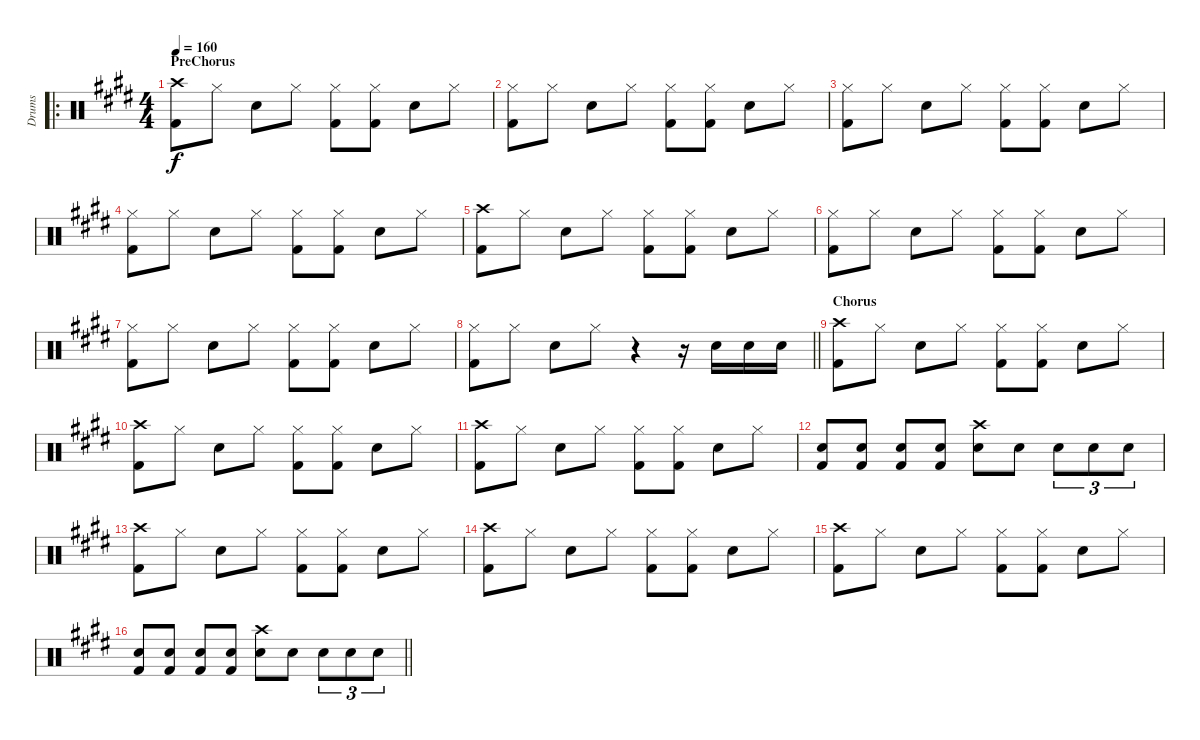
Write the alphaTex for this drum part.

\track ("Drums" "Drums") {instrument percussion}
\staff {score}
\articulation defaults
\ro
\ts (4 4)
\section ("" "PreChorus")
\tempo 160
\clef neutral
\ks e
("Kick (hit) 2" "Crash high (hit)").8{dy f} "Hi-Hat (closed)".8 "Snare (hit) 2".8 "Hi-Hat (closed)".8 ("Kick (hit) 2" "Hi-Hat (closed)").8 ("Kick (hit) 2" "Hi-Hat (closed)").8 "Snare (hit) 2".8 "Hi-Hat (closed)".8 |
("Kick (hit) 2" "Hi-Hat (closed)").8 "Hi-Hat (closed)".8 "Snare (hit) 2".8 "Hi-Hat (closed)".8 ("Kick (hit) 2" "Hi-Hat (closed)").8 ("Kick (hit) 2" "Hi-Hat (closed)").8 "Snare (hit) 2".8 "Hi-Hat (closed)".8 |
("Kick (hit) 2" "Hi-Hat (closed)").8 "Hi-Hat (closed)".8 "Snare (hit) 2".8 "Hi-Hat (closed)".8 ("Kick (hit) 2" "Hi-Hat (closed)").8 ("Kick (hit) 2" "Hi-Hat (closed)").8 "Snare (hit) 2".8 "Hi-Hat (closed)".8 |
("Kick (hit) 2" "Hi-Hat (closed)").8 "Hi-Hat (closed)".8 "Snare (hit) 2".8 "Hi-Hat (closed)".8 ("Kick (hit) 2" "Hi-Hat (closed)").8 ("Kick (hit) 2" "Hi-Hat (closed)").8 "Snare (hit) 2".8 "Hi-Hat (closed)".8 |
("Kick (hit) 2" "Crash high (hit)").8 "Hi-Hat (closed)".8 "Snare (hit) 2".8 "Hi-Hat (closed)".8 ("Kick (hit) 2" "Hi-Hat (closed)").8 ("Kick (hit) 2" "Hi-Hat (closed)").8 "Snare (hit) 2".8 "Hi-Hat (closed)".8 |
("Kick (hit) 2" "Hi-Hat (closed)").8 "Hi-Hat (closed)".8 "Snare (hit) 2".8 "Hi-Hat (closed)".8 ("Kick (hit) 2" "Hi-Hat (closed)").8 ("Kick (hit) 2" "Hi-Hat (closed)").8 "Snare (hit) 2".8 "Hi-Hat (closed)".8 |
("Kick (hit) 2" "Hi-Hat (closed)").8 "Hi-Hat (closed)".8 "Snare (hit) 2".8 "Hi-Hat (closed)".8 ("Kick (hit) 2" "Hi-Hat (closed)").8 ("Kick (hit) 2" "Hi-Hat (closed)").8 "Snare (hit) 2".8 "Hi-Hat (closed)".8 |
\barLineRight lightlight
("Kick (hit) 2" "Hi-Hat (closed)").8 "Hi-Hat (closed)".8 "Snare (hit) 2".8 "Hi-Hat (closed)".8 r.4 r.16 "Snare (hit) 2".16 "Snare (hit) 2".16 "Snare (hit) 2".16 |
\section ("" "Chorus")
("Kick (hit) 2" "Crash high (hit)").8 "Hi-Hat (closed)".8 "Snare (hit) 2".8 "Hi-Hat (closed)".8 ("Kick (hit) 2" "Hi-Hat (closed)").8 ("Kick (hit) 2" "Hi-Hat (closed)").8 "Snare (hit) 2".8 "Hi-Hat (closed)".8 |
("Kick (hit) 2" "Crash high (hit)").8 "Hi-Hat (closed)".8 "Snare (hit) 2".8 "Hi-Hat (closed)".8 ("Kick (hit) 2" "Hi-Hat (closed)").8 ("Kick (hit) 2" "Hi-Hat (closed)").8 "Snare (hit) 2".8 "Hi-Hat (closed)".8 |
("Kick (hit) 2" "Crash high (hit)").8 "Hi-Hat (closed)".8 "Snare (hit) 2".8 "Hi-Hat (closed)".8 ("Kick (hit) 2" "Hi-Hat (closed)").8 ("Kick (hit) 2" "Hi-Hat (closed)").8 "Snare (hit) 2".8 "Hi-Hat (closed)".8 |
("Kick (hit) 2" "Snare (hit) 2").8 ("Kick (hit) 2" "Snare (hit) 2").8 ("Kick (hit) 2" "Snare (hit) 2").8 ("Kick (hit) 2" "Snare (hit) 2").8 ("Crash high (hit)" "Snare (hit) 2").8 "Snare (hit) 2".8 "Snare (hit) 2".8{tu (3 2)} "Snare (hit) 2".8{tu (3 2)} "Snare (hit) 2".8{tu (3 2)} |
("Kick (hit) 2" "Crash high (hit)").8 "Hi-Hat (closed)".8 "Snare (hit) 2".8 "Hi-Hat (closed)".8 ("Kick (hit) 2" "Hi-Hat (closed)").8 ("Kick (hit) 2" "Hi-Hat (closed)").8 "Snare (hit) 2".8 "Hi-Hat (closed)".8 |
("Kick (hit) 2" "Crash high (hit)").8 "Hi-Hat (closed)".8 "Snare (hit) 2".8 "Hi-Hat (closed)".8 ("Kick (hit) 2" "Hi-Hat (closed)").8 ("Kick (hit) 2" "Hi-Hat (closed)").8 "Snare (hit) 2".8 "Hi-Hat (closed)".8 |
("Kick (hit) 2" "Crash high (hit)").8 "Hi-Hat (closed)".8 "Snare (hit) 2".8 "Hi-Hat (closed)".8 ("Kick (hit) 2" "Hi-Hat (closed)").8 ("Kick (hit) 2" "Hi-Hat (closed)").8 "Snare (hit) 2".8 "Hi-Hat (closed)".8 |
\barLineRight lightlight
("Kick (hit) 2" "Snare (hit) 2").8 ("Kick (hit) 2" "Snare (hit) 2").8 ("Kick (hit) 2" "Snare (hit) 2").8 ("Kick (hit) 2" "Snare (hit) 2").8 ("Crash high (hit)" "Snare (hit) 2").8 "Snare (hit) 2".8 "Snare (hit) 2".8{tu (3 2)} "Snare (hit) 2".8{tu (3 2)} "Snare (hit) 2".8{tu (3 2)}
